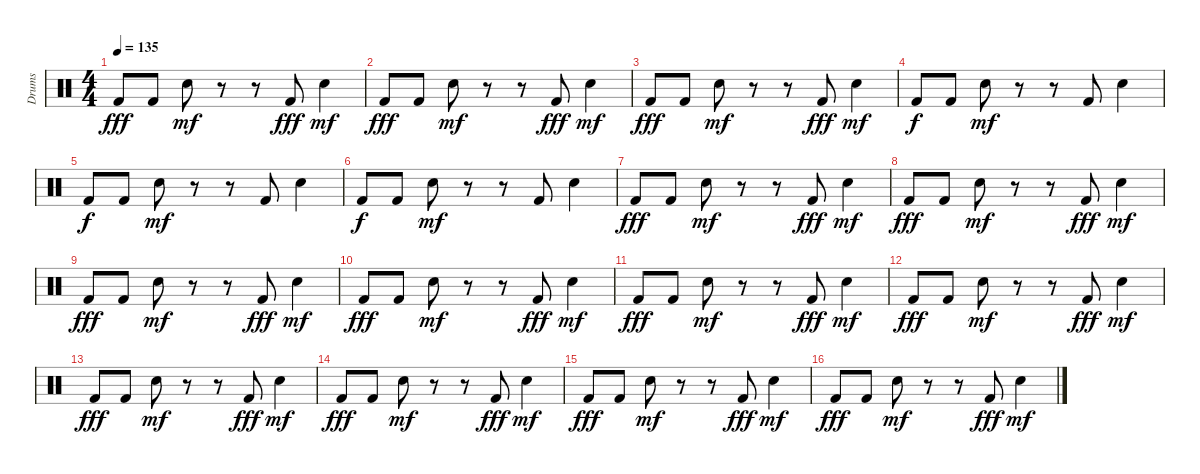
\track ("Drums" "Drums") {instrument percussion}
\staff {score}
\articulation defaults
\ts (4 4)
\tempo 135
\clef neutral
\ks c "Kick (hit) 2".8{dy fff} "Kick (hit) 2".8 "Snare (hit) 2".8{dy mf}
r.8 r.8 "Kick (hit) 2".8{dy fff} "Snare (hit) 2".4{dy mf} |
"Kick (hit) 2".8{dy fff} "Kick (hit) 2".8 "Snare (hit) 2".8{dy mf} r.8 r.8 "Kick (hit) 2".8{dy fff} "Snare (hit) 2".4{dy mf} |
"Kick (hit) 2".8{dy fff} "Kick (hit) 2".8 "Snare (hit) 2".8{dy mf} r.8 r.8 "Kick (hit) 2".8{dy fff} "Snare (hit) 2".4{dy mf} |
"Kick (hit) 2".8{dy f} "Kick (hit) 2".8 "Snare (hit) 2".8{dy mf} r.8 r.8 "Kick (hit) 2".8 "Snare (hit) 2".4 |
"Kick (hit) 2".8{dy f} "Kick (hit) 2".8 "Snare (hit) 2".8{dy mf} r.8 r.8 "Kick (hit) 2".8 "Snare (hit) 2".4 |
"Kick (hit) 2".8{dy f} "Kick (hit) 2".8 "Snare (hit) 2".8{dy mf} r.8 r.8 "Kick (hit) 2".8 "Snare (hit) 2".4 |
"Kick (hit) 2".8{dy fff} "Kick (hit) 2".8 "Snare (hit) 2".8{dy mf} r.8 r.8 "Kick (hit) 2".8{dy fff} "Snare (hit) 2".4{dy mf} |
"Kick (hit) 2".8{dy fff} "Kick (hit) 2".8 "Snare (hit) 2".8{dy mf} r.8 r.8 "Kick (hit) 2".8{dy fff} "Snare (hit) 2".4{dy mf} |
"Kick (hit) 2".8{dy fff} "Kick (hit) 2".8 "Snare (hit) 2".8{dy mf} r.8 r.8 "Kick (hit) 2".8{dy fff} "Snare (hit) 2".4{dy mf} |
"Kick (hit) 2".8{dy fff} "Kick (hit) 2".8 "Snare (hit) 2".8{dy mf} r.8 r.8 "Kick (hit) 2".8{dy fff} "Snare (hit) 2".4{dy mf} |
"Kick (hit) 2".8{dy fff} "Kick (hit) 2".8 "Snare (hit) 2".8{dy mf} r.8 r.8 "Kick (hit) 2".8{dy fff} "Snare (hit) 2".4{dy mf} |
"Kick (hit) 2".8{dy fff} "Kick (hit) 2".8 "Snare (hit) 2".8{dy mf} r.8 r.8 "Kick (hit) 2".8{dy fff} "Snare (hit) 2".4{dy mf} |
"Kick (hit) 2".8{dy fff} "Kick (hit) 2".8 "Snare (hit) 2".8{dy mf} r.8 r.8 "Kick (hit) 2".8{dy fff} "Snare (hit) 2".4{dy mf} |
"Kick (hit) 2".8{dy fff} "Kick (hit) 2".8 "Snare (hit) 2".8{dy mf} r.8 r.8 "Kick (hit) 2".8{dy fff} "Snare (hit) 2".4{dy mf} |
"Kick (hit) 2".8{dy fff} "Kick (hit) 2".8 "Snare (hit) 2".8{dy mf} r.8 r.8 "Kick (hit) 2".8{dy fff} "Snare (hit) 2".4{dy mf} |
"Kick (hit) 2".8{dy fff} "Kick (hit) 2".8 "Snare (hit) 2".8{dy mf} r.8 r.8 "Kick (hit) 2".8{dy fff} "Snare (hit) 2".4{dy mf}
